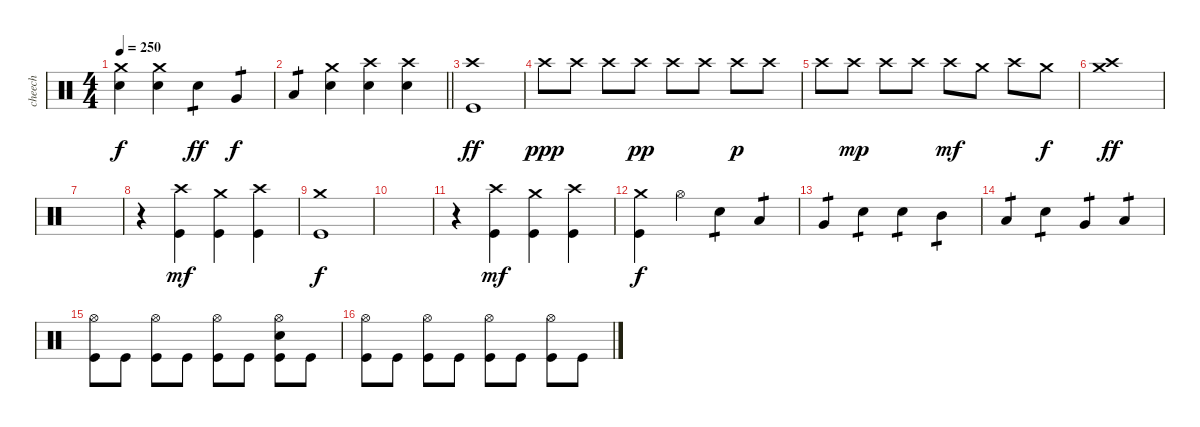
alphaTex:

\track ("cheech" "cheech") {instrument percussion}
\staff {score}
\articulation defaults
\ts (4 4)
\tempo 250
\clef neutral
\ks c
("Crash medium (hit)" "Electric Snare (hit)").4{dy f} ("Crash medium (hit)" "Electric Snare (hit)").4 "Electric Snare (hit)".4{tp 1 dy ff} "Very Low Tom (hit)".4{tp 1 dy f} |
\barLineRight lightlight "Low Floor Tom (hit)".4{tp 1}
("Crash medium (hit)" "Electric Snare (hit)").4 ("Crash high (hit)" "Electric Snare (hit)").4 ("Crash high (hit)" "Electric Snare (hit)").4 |
("Crash high (hit)" "Kick (hit)").1{dy ff} |
"Crash high (hit)".8{dy ppp} "Crash high (hit)".8 "Crash high (hit)".8 "Crash high (hit)".8{dy pp} "Crash high (hit)".8 "Crash high (hit)".8 "Crash high (hit)".8{dy p} "Crash high (hit)".8 |
"Crash high (hit)".8 "Crash high (hit)".8{dy mp} "Crash high (hit)".8 "Crash high (hit)".8 "Crash high (hit)".8{dy mf} "Crash medium (hit)".8 "Crash high (hit)".8 "Crash medium (hit)".8{dy f} |
("Crash high (hit)" "Crash medium (hit)").1{dy ff} |
|
r.4 ("Crash high (hit)" "Kick (hit)").4{dy mf} ("Crash medium (hit)" "Kick (hit)").4 ("Crash high (hit)" "Kick (hit)").4 |
("Crash medium (hit)" "Kick (hit)").1{dy f} |
|
r.4 ("Crash high (hit)" "Kick (hit)").4{dy mf} ("Crash medium (hit)" "Kick (hit)").4 ("Crash high (hit)" "Kick (hit)").4 |
("Crash medium (hit)" "Kick (hit)").4{dy f} "Hi-Hat (open)".4 "Electric Snare (hit)".4{tp 1} "Low Tom (hit)".4{tp 1} |
"Very Low Tom (hit)".4{tp 1} "Electric Snare (hit)".4{tp 1} "Electric Snare (hit)".4{tp 1} "Mid Tom (hit)".4{tp 1} |
"Low Tom (hit)".4{tp 1} "Electric Snare (hit)".4{tp 1} "Very Low Tom (hit)".4{tp 1} "Low Floor Tom (hit)".4{tp 1} |
("Hi-Hat (open)" "Kick (hit)").8 "Kick (hit)".8 ("Hi-Hat (open)" "Kick (hit)").8 "Kick (hit)".8 ("Hi-Hat (open)" "Kick (hit)").8 "Kick (hit)".8 ("Hi-Hat (open)" "Electric Snare (hit)" "Kick (hit)").8 "Kick (hit)".8 |
("Hi-Hat (open)" "Kick (hit)").8 "Kick (hit)".8 ("Hi-Hat (open)" "Kick (hit)").8 "Kick (hit)".8 ("Hi-Hat (open)" "Kick (hit)").8 "Kick (hit)".8 ("Hi-Hat (open)" "Kick (hit)").8 "Kick (hit)".8
